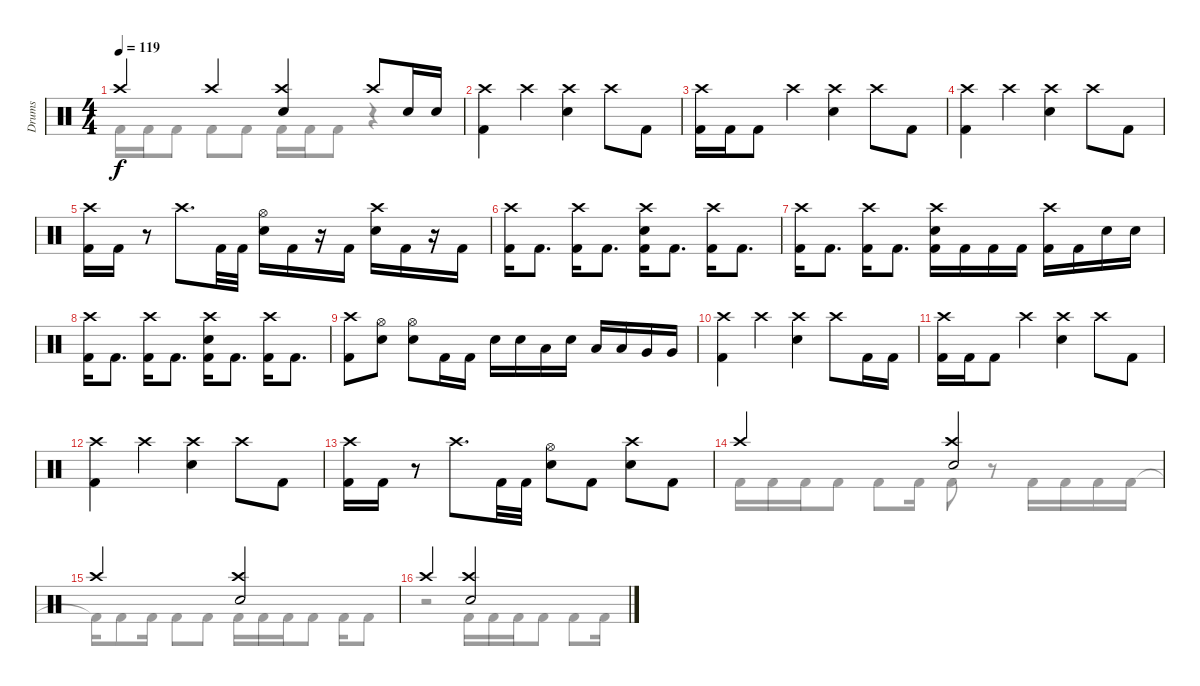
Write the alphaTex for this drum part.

\track ("Drums" "Drums") {instrument percussion}
\staff {score}
\articulation defaults
\voice
\ts (4 4)
\tempo 119
\clef neutral
\ks c "Crash high (hit)".4{dy f} "Crash high (hit)".4
("Crash high (hit)" "Electric Snare (hit)").4 "Crash high (hit)".8 "Electric Snare (hit)".16 "Electric Snare (hit)".16 |
("Crash high (hit)" "Kick (hit) 2").4 "Crash high (hit)".4 ("Crash high (hit)" "Electric Snare (hit)").4 "Crash high (hit)".8 "Kick (hit) 2".8 |
("Crash high (hit)" "Kick (hit) 2").16 "Kick (hit) 2".16 "Kick (hit) 2".8 "Crash high (hit)".4 ("Crash high (hit)" "Electric Snare (hit)").4 "Crash high (hit)".8 "Kick (hit) 2".8 |
("Crash high (hit)" "Kick (hit) 2").4 "Crash high (hit)".4 ("Crash high (hit)" "Electric Snare (hit)").4 "Crash high (hit)".8 "Kick (hit) 2".8 |
("Crash high (hit)" "Kick (hit) 2").16 "Kick (hit) 2".16 r.8 "Crash high (hit)".8{d} "Kick (hit) 2".32 "Kick (hit) 2".32 ("Hi-Hat (open)" "Electric Snare (hit)").16 "Kick (hit) 2".16 r.16 "Kick (hit) 2".16 ("Crash high (hit)" "Electric Snare (hit)").16 "Kick (hit) 2".16 r.16 "Kick (hit) 2".16 |
("Crash high (hit)" "Kick (hit) 2").16 "Kick (hit) 2".8{d} ("Crash high (hit)" "Kick (hit) 2").16 "Kick (hit) 2".8{d} ("Crash high (hit)" "Electric Snare (hit)" "Kick (hit) 2").16 "Kick (hit) 2".8{d} ("Crash high (hit)" "Kick (hit) 2").16 "Kick (hit) 2".8{d} |
("Crash high (hit)" "Kick (hit) 2").16 "Kick (hit) 2".8{d} ("Crash high (hit)" "Kick (hit) 2").16 "Kick (hit) 2".8{d} ("Crash high (hit)" "Electric Snare (hit)" "Kick (hit) 2").16 "Kick (hit) 2".16 "Kick (hit) 2".16 "Kick (hit) 2".16 ("Crash high (hit)" "Kick (hit) 2").16 "Kick (hit) 2".16 "Electric Snare (hit)".16 "Electric Snare (hit)".16 |
("Crash high (hit)" "Kick (hit) 2").16 "Kick (hit) 2".8{d} ("Crash high (hit)" "Kick (hit) 2").16 "Kick (hit) 2".8{d} ("Crash high (hit)" "Electric Snare (hit)" "Kick (hit) 2").16 "Kick (hit) 2".8{d} ("Crash high (hit)" "Kick (hit) 2").16 "Kick (hit) 2".8{d} |
("Crash high (hit)" "Kick (hit) 2").8 ("Hi-Hat (open)" "Electric Snare (hit)").8 ("Hi-Hat (open)" "Electric Snare (hit)").8 "Kick (hit) 2".16 "Kick (hit) 2".16 "Electric Snare (hit)".16 "Electric Snare (hit)".16 "Low Tom (hit)".16 "Electric Snare (hit)".16 "Low Tom (hit)".16 "Low Tom (hit)".16 "Very Low Tom (hit)".16 "Very Low Tom (hit)".16 |
("Crash high (hit)" "Kick (hit) 2").4 "Crash high (hit)".4 ("Crash high (hit)" "Electric Snare (hit)").4 "Crash high (hit)".8 "Kick (hit) 2".16 "Kick (hit) 2".16 |
("Crash high (hit)" "Kick (hit) 2").16 "Kick (hit) 2".16 "Kick (hit) 2".8 "Crash high (hit)".4 ("Crash high (hit)" "Electric Snare (hit)").4 "Crash high (hit)".8 "Kick (hit) 2".8 |
("Crash high (hit)" "Kick (hit) 2").4 "Crash high (hit)".4 ("Crash high (hit)" "Electric Snare (hit)").4 "Crash high (hit)".8 "Kick (hit) 2".8 |
("Crash high (hit)" "Kick (hit) 2").16 "Kick (hit) 2".16 r.8 "Crash high (hit)".8{d} "Kick (hit) 2".32 "Kick (hit) 2".32 ("Hi-Hat (open)" "Electric Snare (hit)").8 "Kick (hit) 2".8 ("Crash high (hit)" "Electric Snare (hit)").8 "Kick (hit) 2".8 |
"Crash high (hit)".2 ("Crash high (hit)" "Electric Snare (hit)").2 |
"Crash high (hit)".2 ("Crash high (hit)" "Electric Snare (hit)").2 |
"Crash high (hit)".2 ("Crash high (hit)" "Electric Snare (hit)").2
\voice
\clef neutral
\ottava regular
\simile none
\ks c "Kick (hit) 2"{t}.16{dy f} "Kick (hit) 2".16 "Kick (hit) 2".8 "Kick (hit) 2".8 "Kick (hit) 2".8 "Kick (hit) 2".16 "Kick (hit) 2".16 "Kick (hit) 2".8
r.4 |
|
|
|
|
|
|
|
|
|
|
|
|
"Kick (hit) 2".16 "Kick (hit) 2".16 "Kick (hit) 2".16 "Kick (hit) 2".8 "Kick (hit) 2".8 "Kick (hit) 2".16 "Kick (hit) 2".8 r.8 "Kick (hit) 2".16 "Kick (hit) 2".16 "Kick (hit) 2".16 "Kick (hit) 2".16 |
"Kick (hit) 2"{t}.16 "Kick (hit) 2".8 "Kick (hit) 2".16 "Kick (hit) 2".8 "Kick (hit) 2".8 "Kick (hit) 2".16 "Kick (hit) 2".16 "Kick (hit) 2".16 "Kick (hit) 2".8 "Kick (hit) 2".16 "Kick (hit) 2".8 |
r.2 "Kick (hit) 2".16 "Kick (hit) 2".16 "Kick (hit) 2".16 "Kick (hit) 2".8 "Kick (hit) 2".8 "Kick (hit) 2".16
